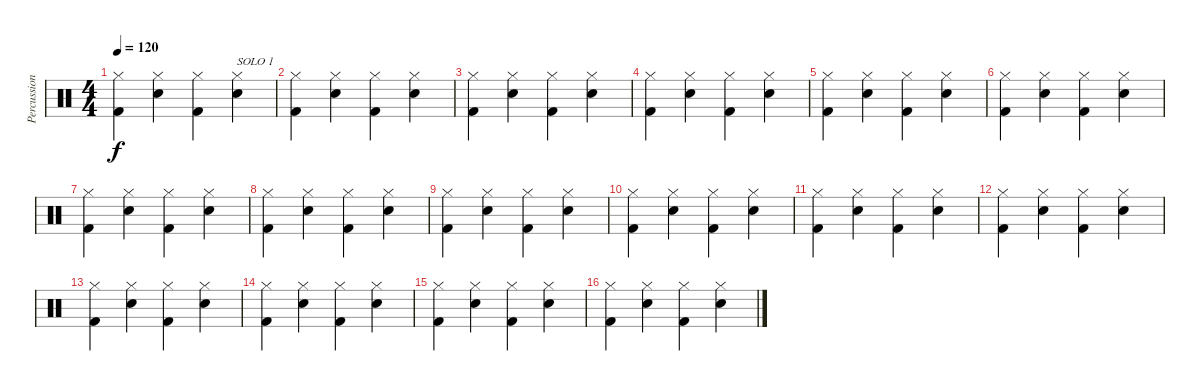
\track ("Percussions" "Percussion") {instrument percussion}
\staff {score}
\articulation defaults
\ts (4 4)
\tempo 120
\clef neutral
\ks c
("Hi-Hat (closed)" "Kick (hit) 2").4{dy f} ("Hi-Hat (closed)" "Electric Snare (hit)").4 ("Hi-Hat (closed)" "Kick (hit) 2").4 ("Hi-Hat (closed)" "Electric Snare (hit)").4{txt "SOLO 1"} |
("Hi-Hat (closed)" "Kick (hit) 2").4 ("Hi-Hat (closed)" "Electric Snare (hit)").4 ("Hi-Hat (closed)" "Kick (hit) 2").4 ("Hi-Hat (closed)" "Electric Snare (hit)").4 |
("Hi-Hat (closed)" "Kick (hit) 2").4 ("Hi-Hat (closed)" "Electric Snare (hit)").4 ("Hi-Hat (closed)" "Kick (hit) 2").4 ("Hi-Hat (closed)" "Electric Snare (hit)").4 |
("Hi-Hat (closed)" "Kick (hit) 2").4 ("Hi-Hat (closed)" "Electric Snare (hit)").4 ("Hi-Hat (closed)" "Kick (hit) 2").4 ("Hi-Hat (closed)" "Electric Snare (hit)").4 |
("Hi-Hat (closed)" "Kick (hit) 2").4 ("Hi-Hat (closed)" "Electric Snare (hit)").4 ("Hi-Hat (closed)" "Kick (hit) 2").4 ("Hi-Hat (closed)" "Electric Snare (hit)").4 |
("Hi-Hat (closed)" "Kick (hit) 2").4 ("Hi-Hat (closed)" "Electric Snare (hit)").4 ("Hi-Hat (closed)" "Kick (hit) 2").4 ("Hi-Hat (closed)" "Electric Snare (hit)").4 |
("Hi-Hat (closed)" "Kick (hit) 2").4 ("Hi-Hat (closed)" "Electric Snare (hit)").4 ("Hi-Hat (closed)" "Kick (hit) 2").4 ("Hi-Hat (closed)" "Electric Snare (hit)").4 |
("Hi-Hat (closed)" "Kick (hit) 2").4 ("Hi-Hat (closed)" "Electric Snare (hit)").4 ("Hi-Hat (closed)" "Kick (hit) 2").4 ("Hi-Hat (closed)" "Electric Snare (hit)").4 |
("Hi-Hat (closed)" "Kick (hit) 2").4 ("Hi-Hat (closed)" "Electric Snare (hit)").4 ("Hi-Hat (closed)" "Kick (hit) 2").4 ("Hi-Hat (closed)" "Electric Snare (hit)").4 |
("Hi-Hat (closed)" "Kick (hit) 2").4 ("Hi-Hat (closed)" "Electric Snare (hit)").4 ("Hi-Hat (closed)" "Kick (hit) 2").4 ("Hi-Hat (closed)" "Electric Snare (hit)").4 |
("Hi-Hat (closed)" "Kick (hit) 2").4 ("Hi-Hat (closed)" "Electric Snare (hit)").4 ("Hi-Hat (closed)" "Kick (hit) 2").4 ("Hi-Hat (closed)" "Electric Snare (hit)").4 |
("Hi-Hat (closed)" "Kick (hit) 2").4 ("Hi-Hat (closed)" "Electric Snare (hit)").4 ("Hi-Hat (closed)" "Kick (hit) 2").4 ("Hi-Hat (closed)" "Electric Snare (hit)").4 |
("Hi-Hat (closed)" "Kick (hit) 2").4 ("Hi-Hat (closed)" "Electric Snare (hit)").4 ("Hi-Hat (closed)" "Kick (hit) 2").4 ("Hi-Hat (closed)" "Electric Snare (hit)").4 |
("Hi-Hat (closed)" "Kick (hit) 2").4 ("Hi-Hat (closed)" "Electric Snare (hit)").4 ("Hi-Hat (closed)" "Kick (hit) 2").4 ("Hi-Hat (closed)" "Electric Snare (hit)").4 |
("Hi-Hat (closed)" "Kick (hit) 2").4 ("Hi-Hat (closed)" "Electric Snare (hit)").4 ("Hi-Hat (closed)" "Kick (hit) 2").4 ("Hi-Hat (closed)" "Electric Snare (hit)").4 |
("Hi-Hat (closed)" "Kick (hit) 2").4 ("Hi-Hat (closed)" "Electric Snare (hit)").4 ("Hi-Hat (closed)" "Kick (hit) 2").4 ("Hi-Hat (closed)" "Electric Snare (hit)").4
